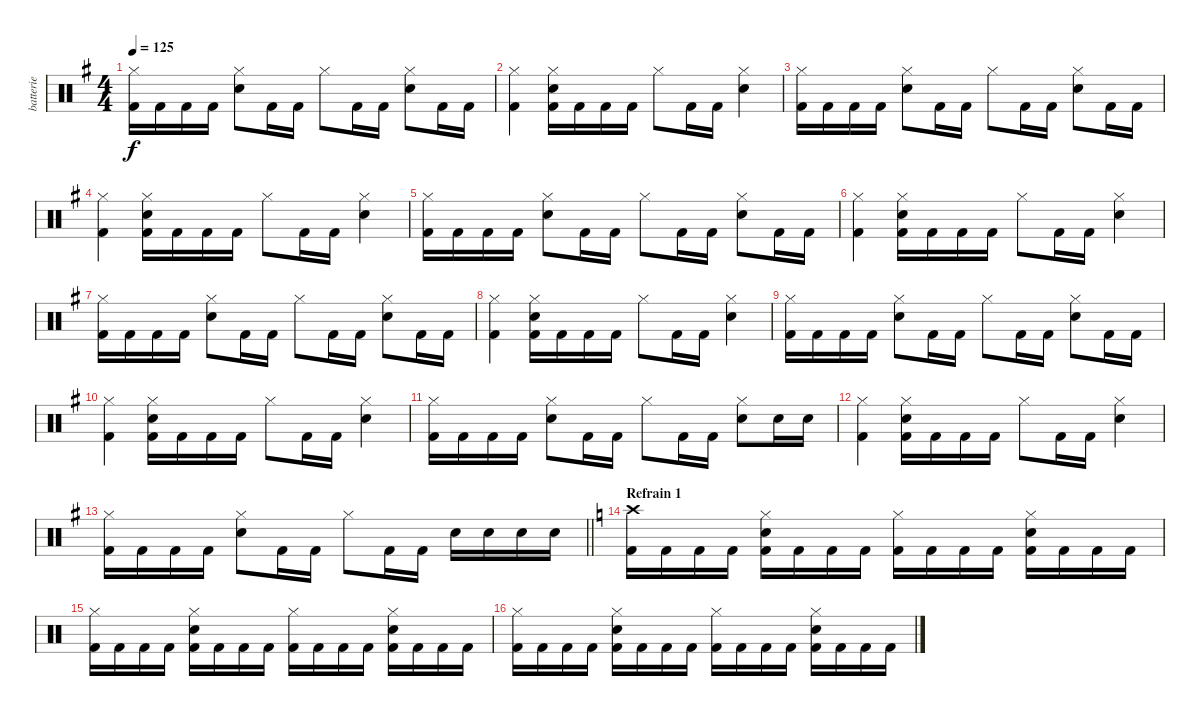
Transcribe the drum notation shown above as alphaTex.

\track ("batterie" "batterie") {instrument percussion}
\staff {score}
\articulation defaults
\ts (4 4)
\tempo 125
\clef neutral
\ks eminor
("Hi-Hat (closed)" "Kick (hit) 2").16{dy f} "Kick (hit) 2".16 "Kick (hit) 2".16 "Kick (hit) 2".16 ("Hi-Hat (closed)" "Electric Snare (hit)").8 "Kick (hit) 2".16 "Kick (hit) 2".16 "Hi-Hat (closed)".8 "Kick (hit) 2".16 "Kick (hit) 2".16 ("Hi-Hat (closed)" "Electric Snare (hit)").8 "Kick (hit) 2".16 "Kick (hit) 2".16 |
("Hi-Hat (closed)" "Kick (hit) 2").4 ("Hi-Hat (closed)" "Electric Snare (hit)" "Kick (hit) 2").16 "Kick (hit) 2".16 "Kick (hit) 2".16 "Kick (hit) 2".16 "Hi-Hat (closed)".8 "Kick (hit) 2".16 "Kick (hit) 2".16 ("Hi-Hat (closed)" "Electric Snare (hit)").4 |
("Hi-Hat (closed)" "Kick (hit) 2").16 "Kick (hit) 2".16 "Kick (hit) 2".16 "Kick (hit) 2".16 ("Hi-Hat (closed)" "Electric Snare (hit)").8 "Kick (hit) 2".16 "Kick (hit) 2".16 "Hi-Hat (closed)".8 "Kick (hit) 2".16 "Kick (hit) 2".16 ("Hi-Hat (closed)" "Electric Snare (hit)").8 "Kick (hit) 2".16 "Kick (hit) 2".16 |
("Hi-Hat (closed)" "Kick (hit) 2").4 ("Hi-Hat (closed)" "Electric Snare (hit)" "Kick (hit) 2").16 "Kick (hit) 2".16 "Kick (hit) 2".16 "Kick (hit) 2".16 "Hi-Hat (closed)".8 "Kick (hit) 2".16 "Kick (hit) 2".16 ("Hi-Hat (closed)" "Electric Snare (hit)").4 |
("Hi-Hat (closed)" "Kick (hit) 2").16 "Kick (hit) 2".16 "Kick (hit) 2".16 "Kick (hit) 2".16 ("Hi-Hat (closed)" "Electric Snare (hit)").8 "Kick (hit) 2".16 "Kick (hit) 2".16 "Hi-Hat (closed)".8 "Kick (hit) 2".16 "Kick (hit) 2".16 ("Hi-Hat (closed)" "Electric Snare (hit)").8 "Kick (hit) 2".16 "Kick (hit) 2".16 |
("Hi-Hat (closed)" "Kick (hit) 2").4 ("Hi-Hat (closed)" "Electric Snare (hit)" "Kick (hit) 2").16 "Kick (hit) 2".16 "Kick (hit) 2".16 "Kick (hit) 2".16 "Hi-Hat (closed)".8 "Kick (hit) 2".16 "Kick (hit) 2".16 ("Hi-Hat (closed)" "Electric Snare (hit)").4 |
("Hi-Hat (closed)" "Kick (hit) 2").16 "Kick (hit) 2".16 "Kick (hit) 2".16 "Kick (hit) 2".16 ("Hi-Hat (closed)" "Electric Snare (hit)").8 "Kick (hit) 2".16 "Kick (hit) 2".16 "Hi-Hat (closed)".8 "Kick (hit) 2".16 "Kick (hit) 2".16 ("Hi-Hat (closed)" "Electric Snare (hit)").8 "Kick (hit) 2".16 "Kick (hit) 2".16 |
("Hi-Hat (closed)" "Kick (hit) 2").4 ("Hi-Hat (closed)" "Electric Snare (hit)" "Kick (hit) 2").16 "Kick (hit) 2".16 "Kick (hit) 2".16 "Kick (hit) 2".16 "Hi-Hat (closed)".8 "Kick (hit) 2".16 "Kick (hit) 2".16 ("Hi-Hat (closed)" "Electric Snare (hit)").4 |
("Hi-Hat (closed)" "Kick (hit) 2").16 "Kick (hit) 2".16 "Kick (hit) 2".16 "Kick (hit) 2".16 ("Hi-Hat (closed)" "Electric Snare (hit)").8 "Kick (hit) 2".16 "Kick (hit) 2".16 "Hi-Hat (closed)".8 "Kick (hit) 2".16 "Kick (hit) 2".16 ("Hi-Hat (closed)" "Electric Snare (hit)").8 "Kick (hit) 2".16 "Kick (hit) 2".16 |
("Hi-Hat (closed)" "Kick (hit) 2").4 ("Hi-Hat (closed)" "Electric Snare (hit)" "Kick (hit) 2").16 "Kick (hit) 2".16 "Kick (hit) 2".16 "Kick (hit) 2".16 "Hi-Hat (closed)".8 "Kick (hit) 2".16 "Kick (hit) 2".16 ("Hi-Hat (closed)" "Electric Snare (hit)").4 |
("Hi-Hat (closed)" "Kick (hit) 2").16 "Kick (hit) 2".16 "Kick (hit) 2".16 "Kick (hit) 2".16 ("Hi-Hat (closed)" "Electric Snare (hit)").8 "Kick (hit) 2".16 "Kick (hit) 2".16 "Hi-Hat (closed)".8 "Kick (hit) 2".16 "Kick (hit) 2".16 ("Hi-Hat (closed)" "Electric Snare (hit)").8 "Electric Snare (hit)".16 "Electric Snare (hit)".16 |
("Hi-Hat (closed)" "Kick (hit) 2").4 ("Hi-Hat (closed)" "Electric Snare (hit)" "Kick (hit) 2").16 "Kick (hit) 2".16 "Kick (hit) 2".16 "Kick (hit) 2".16 "Hi-Hat (closed)".8 "Kick (hit) 2".16 "Kick (hit) 2".16 ("Hi-Hat (closed)" "Electric Snare (hit)").4 |
\barLineRight lightlight
("Hi-Hat (closed)" "Kick (hit) 2").16 "Kick (hit) 2".16 "Kick (hit) 2".16 "Kick (hit) 2".16 ("Hi-Hat (closed)" "Electric Snare (hit)").8 "Kick (hit) 2".16 "Kick (hit) 2".16 "Hi-Hat (closed)".8 "Kick (hit) 2".16 "Kick (hit) 2".16 "Electric Snare (hit)".16 "Electric Snare (hit)".16 "Electric Snare (hit)".16 "Electric Snare (hit)".16 |
\section ("" "Refrain 1")
\ks aminor
("Crash high (hit)" "Kick (hit) 2").16 "Kick (hit) 2".16 "Kick (hit) 2".16 "Kick (hit) 2".16 ("Hi-Hat (closed)" "Electric Snare (hit)" "Kick (hit) 2").16 "Kick (hit) 2".16 "Kick (hit) 2".16 "Kick (hit) 2".16 ("Hi-Hat (closed)" "Kick (hit) 2").16 "Kick (hit) 2".16 "Kick (hit) 2".16 "Kick (hit) 2".16 ("Hi-Hat (closed)" "Electric Snare (hit)" "Kick (hit) 2").16 "Kick (hit) 2".16 "Kick (hit) 2".16 "Kick (hit) 2".16 |
("Hi-Hat (closed)" "Kick (hit) 2").16 "Kick (hit) 2".16 "Kick (hit) 2".16 "Kick (hit) 2".16 ("Hi-Hat (closed)" "Electric Snare (hit)" "Kick (hit) 2").16 "Kick (hit) 2".16 "Kick (hit) 2".16 "Kick (hit) 2".16 ("Hi-Hat (closed)" "Kick (hit) 2").16 "Kick (hit) 2".16 "Kick (hit) 2".16 "Kick (hit) 2".16 ("Hi-Hat (closed)" "Electric Snare (hit)" "Kick (hit) 2").16 "Kick (hit) 2".16 "Kick (hit) 2".16 "Kick (hit) 2".16 |
("Hi-Hat (closed)" "Kick (hit) 2").16 "Kick (hit) 2".16 "Kick (hit) 2".16 "Kick (hit) 2".16 ("Hi-Hat (closed)" "Electric Snare (hit)" "Kick (hit) 2").16 "Kick (hit) 2".16 "Kick (hit) 2".16 "Kick (hit) 2".16 ("Hi-Hat (closed)" "Kick (hit) 2").16 "Kick (hit) 2".16 "Kick (hit) 2".16 "Kick (hit) 2".16 ("Hi-Hat (closed)" "Electric Snare (hit)" "Kick (hit) 2").16 "Kick (hit) 2".16 "Kick (hit) 2".16 "Kick (hit) 2".16
